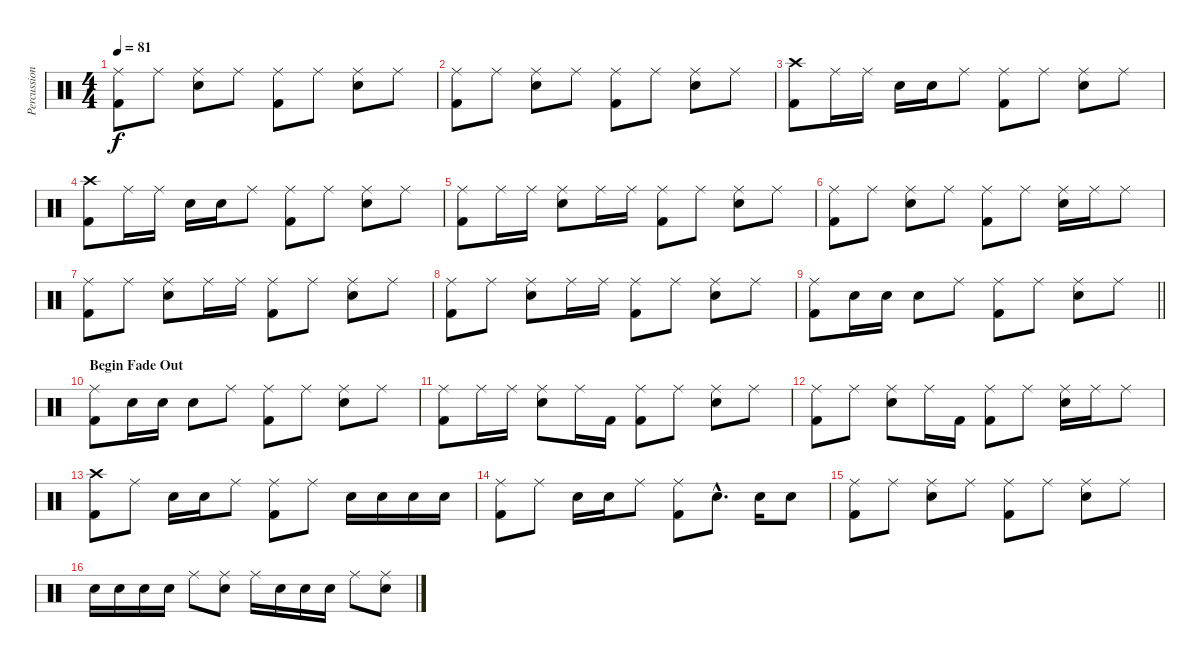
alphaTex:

\track ("Percussion" "Percussion") {instrument percussion}
\staff {score}
\articulation defaults
\ts (4 4)
\tempo 81
\clef neutral
\ks c
("Ride (middle)" "Kick (hit) 2").8{dy f} "Ride (middle)".8 ("Ride (middle)" "Snare (hit) 2").8 "Ride (middle)".8 ("Ride (middle)" "Kick (hit) 2").8 "Ride (middle)".8 ("Ride (middle)" "Snare (hit) 2").8 "Ride (middle)".8 |
("Ride (middle)" "Kick (hit) 2").8 "Ride (middle)".8 ("Ride (middle)" "Snare (hit) 2").8 "Ride (middle)".8 ("Ride (middle)" "Kick (hit) 2").8 "Ride (middle)".8 ("Ride (middle)" "Snare (hit) 2").8 "Ride (middle)".8 |
("Crash high (hit)" "Kick (hit) 2").8 "Ride (middle)".16 "Ride (middle)".16 "Snare (hit) 2".16 "Snare (hit) 2".16 "Ride (middle)".8 ("Ride (middle)" "Kick (hit) 2").8 "Ride (middle)".8 ("Ride (middle)" "Snare (hit) 2").8 "Ride (middle)".8 |
("Crash high (hit)" "Kick (hit) 2").8 "Ride (middle)".16 "Ride (middle)".16 "Snare (hit) 2".16 "Snare (hit) 2".16 "Ride (middle)".8 ("Ride (middle)" "Kick (hit) 2").8 "Ride (middle)".8 ("Ride (middle)" "Snare (hit) 2").8 "Ride (middle)".8 |
("Ride (middle)" "Kick (hit) 2").8 "Ride (middle)".16 "Ride (middle)".16 ("Ride (middle)" "Snare (hit) 2").8 "Ride (middle)".16 "Ride (middle)".16 ("Ride (middle)" "Kick (hit) 2").8 "Ride (middle)".8 ("Ride (middle)" "Snare (hit) 2").8 "Ride (middle)".8 |
("Ride (middle)" "Kick (hit) 2").8 "Ride (middle)".8 ("Ride (middle)" "Snare (hit) 2").8 "Ride (middle)".8 ("Ride (middle)" "Kick (hit) 2").8 "Ride (middle)".8 ("Ride (middle)" "Snare (hit) 2").16 "Ride (middle)".16 "Ride (middle)".8 |
("Ride (middle)" "Kick (hit) 2").8 "Ride (middle)".8 ("Ride (middle)" "Snare (hit) 2").8 "Ride (middle)".16 "Ride (middle)".16 ("Ride (middle)" "Kick (hit) 2").8 "Ride (middle)".8 ("Ride (middle)" "Snare (hit) 2").8 "Ride (middle)".8 |
("Ride (middle)" "Kick (hit) 2").8 "Ride (middle)".8 ("Ride (middle)" "Snare (hit) 2").8 "Ride (middle)".16 "Ride (middle)".16 ("Ride (middle)" "Kick (hit) 2").8 "Ride (middle)".8 ("Ride (middle)" "Snare (hit) 2").8 "Ride (middle)".8 |
\barLineRight lightlight
("Ride (middle)" "Kick (hit) 2").8 "Snare (hit) 2".16 "Snare (hit) 2".16 "Snare (hit) 2".8 "Ride (middle)".8 ("Ride (middle)" "Kick (hit) 2").8 "Ride (middle)".8 ("Ride (middle)" "Snare (hit) 2").8 "Ride (middle)".8 |
\section ("" "Begin Fade Out")
("Ride (middle)" "Kick (hit) 2").8 "Snare (hit) 2".16 "Snare (hit) 2".16 "Snare (hit) 2".8 "Ride (middle)".8 ("Ride (middle)" "Kick (hit) 2").8 "Ride (middle)".8 ("Ride (middle)" "Snare (hit) 2").8 "Ride (middle)".8 |
("Ride (middle)" "Kick (hit) 2").8 "Ride (middle)".16 "Ride (middle)".16 ("Ride (middle)" "Snare (hit) 2").8 "Ride (middle)".16 "Kick (hit) 2".16 ("Ride (middle)" "Kick (hit) 2").8 "Ride (middle)".8 ("Ride (middle)" "Snare (hit) 2").8 "Ride (middle)".8 |
("Ride (middle)" "Kick (hit) 2").8 "Ride (middle)".8 ("Ride (middle)" "Snare (hit) 2").8 "Ride (middle)".16 "Kick (hit) 2".16 ("Ride (middle)" "Kick (hit) 2").8 "Ride (middle)".8 ("Ride (middle)" "Snare (hit) 2").16 "Ride (middle)".16 "Ride (middle)".8 |
("Crash high (hit)" "Kick (hit) 2").8 "Ride (middle)".8 "Snare (hit) 2".16 "Snare (hit) 2".16 "Ride (middle)".8 ("Ride (middle)" "Kick (hit) 2").8 "Ride (middle)".8 "Snare (hit) 2".16 "Snare (hit) 2".16 "Snare (hit) 2".16 "Snare (hit) 2".16 |
("Ride (middle)" "Kick (hit) 2").8 "Ride (middle)".8 "Snare (hit) 2".16 "Snare (hit) 2".16 "Ride (middle)".8 ("Ride (middle)" "Kick (hit) 2").8 "Snare (hit) 2"{hac}.8{d} "Snare (hit) 2".16 "Snare (hit) 2".8 |
("Ride (middle)" "Kick (hit) 2").8 "Ride (middle)".8 ("Ride (middle)" "Snare (hit) 2").8 "Ride (middle)".8 ("Ride (middle)" "Kick (hit) 2").8 "Ride (middle)".8 ("Ride (middle)" "Snare (hit) 2").8 "Ride (middle)".8 |
"Snare (hit) 2".16 "Snare (hit) 2".16 "Snare (hit) 2".16 "Snare (hit) 2".16 "Ride (middle)".8 ("Ride (middle)" "Snare (hit) 2").8 "Ride (middle)".16 "Snare (hit) 2".16 "Snare (hit) 2".16 "Snare (hit) 2".16 "Ride (middle)".8 ("Ride (middle)" "Snare (hit) 2").8
